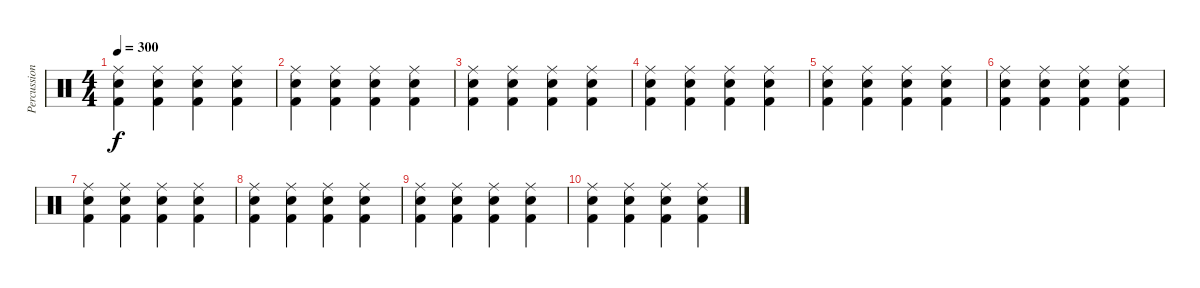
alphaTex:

\track ("Percussion" "Percussion") {instrument percussion}
\staff {score}
\articulation defaults
\ts (4 4)
\tempo 300
\clef neutral
\ks c
("Ride (middle)" "Snare (hit) 2" "Kick (hit) 2").4{dy f} ("Ride (middle)" "Snare (hit) 2" "Kick (hit) 2").4 ("Ride (middle)" "Snare (hit) 2" "Kick (hit) 2").4 ("Ride (middle)" "Snare (hit) 2" "Kick (hit) 2").4 |
("Ride (middle)" "Snare (hit) 2" "Kick (hit) 2").4 ("Ride (middle)" "Snare (hit) 2" "Kick (hit) 2").4 ("Ride (middle)" "Snare (hit) 2" "Kick (hit) 2").4 ("Ride (middle)" "Snare (hit) 2" "Kick (hit) 2").4 |
("Ride (middle)" "Snare (hit) 2" "Kick (hit) 2").4 ("Ride (middle)" "Snare (hit) 2" "Kick (hit) 2").4 ("Ride (middle)" "Snare (hit) 2" "Kick (hit) 2").4 ("Ride (middle)" "Snare (hit) 2" "Kick (hit) 2").4 |
("Ride (middle)" "Snare (hit) 2" "Kick (hit) 2").4 ("Ride (middle)" "Snare (hit) 2" "Kick (hit) 2").4 ("Ride (middle)" "Snare (hit) 2" "Kick (hit) 2").4 ("Ride (middle)" "Snare (hit) 2" "Kick (hit) 2").4 |
("Ride (middle)" "Snare (hit) 2" "Kick (hit) 2").4 ("Ride (middle)" "Snare (hit) 2" "Kick (hit) 2").4 ("Ride (middle)" "Snare (hit) 2" "Kick (hit) 2").4 ("Ride (middle)" "Snare (hit) 2" "Kick (hit) 2").4 |
("Ride (middle)" "Snare (hit) 2" "Kick (hit) 2").4 ("Ride (middle)" "Snare (hit) 2" "Kick (hit) 2").4 ("Ride (middle)" "Snare (hit) 2" "Kick (hit) 2").4 ("Ride (middle)" "Snare (hit) 2" "Kick (hit) 2").4 |
("Ride (middle)" "Snare (hit) 2" "Kick (hit) 2").4 ("Ride (middle)" "Snare (hit) 2" "Kick (hit) 2").4 ("Ride (middle)" "Snare (hit) 2" "Kick (hit) 2").4 ("Ride (middle)" "Snare (hit) 2" "Kick (hit) 2").4 |
("Ride (middle)" "Snare (hit) 2" "Kick (hit) 2").4 ("Ride (middle)" "Snare (hit) 2" "Kick (hit) 2").4 ("Ride (middle)" "Snare (hit) 2" "Kick (hit) 2").4 ("Ride (middle)" "Snare (hit) 2" "Kick (hit) 2").4 |
("Ride (middle)" "Snare (hit) 2" "Kick (hit) 2").4 ("Ride (middle)" "Snare (hit) 2" "Kick (hit) 2").4 ("Ride (middle)" "Snare (hit) 2" "Kick (hit) 2").4 ("Ride (middle)" "Snare (hit) 2" "Kick (hit) 2").4 |
("Ride (middle)" "Snare (hit) 2" "Kick (hit) 2").4 ("Ride (middle)" "Snare (hit) 2" "Kick (hit) 2").4 ("Ride (middle)" "Snare (hit) 2" "Kick (hit) 2").4 ("Ride (middle)" "Snare (hit) 2" "Kick (hit) 2").4
